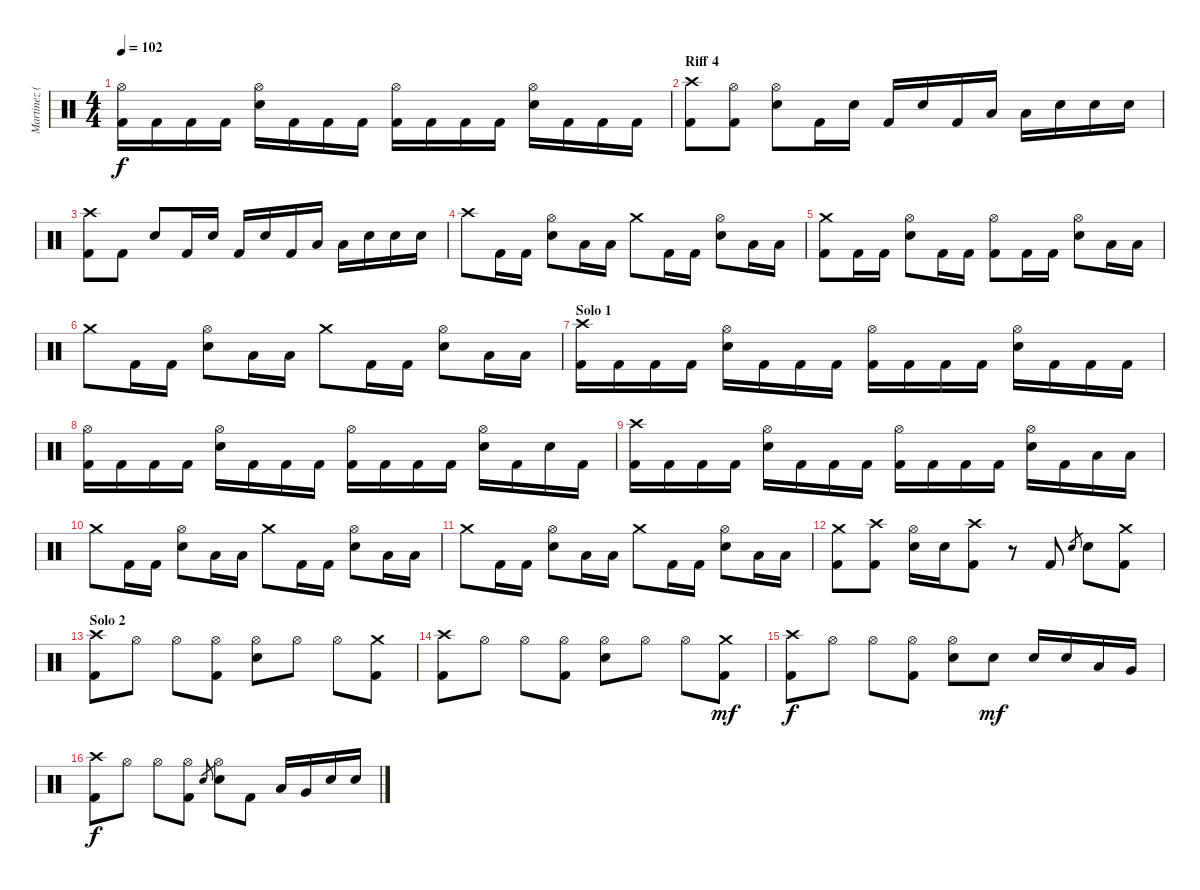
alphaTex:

\track ("Martinez (bateria)" "Martinez (") {instrument percussion}
\staff {score}
\articulation defaults
\ts (4 4)
\tempo 102
\clef neutral
\ks c
("Hi-Hat (open)" "Kick (hit) 2").16{dy f} "Kick (hit) 2".16 "Kick (hit) 2".16 "Kick (hit) 2".16 ("Hi-Hat (open)" "Electric Snare (hit)").16 "Kick (hit) 2".16 "Kick (hit) 2".16 "Kick (hit) 2".16 ("Hi-Hat (open)" "Kick (hit) 2").16 "Kick (hit) 2".16 "Kick (hit) 2".16 "Kick (hit) 2".16 ("Hi-Hat (open)" "Electric Snare (hit)").16 "Kick (hit) 2".16 "Kick (hit) 2".16 "Kick (hit) 2".16 |
\section ("" "Riff 4")
("Crash high (hit)" "Kick (hit) 2").8 ("Hi-Hat (open)" "Kick (hit) 2").8 ("Hi-Hat (open)" "Electric Snare (hit)").8 "Kick (hit) 2".16 "Electric Snare (hit)".16 "Kick (hit) 2".16 "Electric Snare (hit)".16 "Kick (hit) 2".16 "Low Tom (hit)".16 "Low Tom (hit)".16 "Electric Snare (hit)".16 "Electric Snare (hit)".16 "Electric Snare (hit)".16 |
("Crash high (hit)" "Kick (hit) 2").8 "Kick (hit) 2".8 "Electric Snare (hit)".8 "Kick (hit) 2".16 "Electric Snare (hit)".16 "Kick (hit) 2".16 "Electric Snare (hit)".16 "Kick (hit) 2".16 "Low Tom (hit)".16 "Low Tom (hit)".16 "Electric Snare (hit)".16 "Electric Snare (hit)".16 "Electric Snare (hit)".16 |
"Crash high (hit)".8 "Kick (hit) 2".16 "Kick (hit) 2".16 ("Hi-Hat (open)" "Electric Snare (hit)").8 "Low Tom (hit)".16 "Low Tom (hit)".16 "Crash medium (hit)".8 "Kick (hit) 2".16 "Kick (hit) 2".16 ("Hi-Hat (open)" "Electric Snare (hit)").8 "Low Tom (hit)".16 "Low Tom (hit)".16 |
("Crash medium (hit)" "Kick (hit) 2").8 "Kick (hit) 2".16 "Kick (hit) 2".16 ("Hi-Hat (open)" "Snare (hit) 2").8 "Kick (hit) 2".16 "Kick (hit) 2".16 ("Hi-Hat (open)" "Kick (hit) 2").8 "Kick (hit) 2".16 "Kick (hit) 2".16 ("Hi-Hat (open)" "Snare (hit) 2").8 "Low Tom (hit)".16 "Low Tom (hit)".16 |
"Crash medium (hit)".8 "Kick (hit) 2".16 "Kick (hit) 2".16 ("Hi-Hat (open)" "Electric Snare (hit)").8 "Low Tom (hit)".16 "Low Tom (hit)".16 "Crash medium (hit)".8 "Kick (hit) 2".16 "Kick (hit) 2".16 ("Hi-Hat (open)" "Electric Snare (hit)").8 "Low Tom (hit)".16 "Low Tom (hit)".16 |
\section ("" "Solo 1")
("Crash high (hit)" "Kick (hit) 2").16 "Kick (hit) 2".16 "Kick (hit) 2".16 "Kick (hit) 2".16 ("Hi-Hat (open)" "Electric Snare (hit)").16 "Kick (hit) 2".16 "Kick (hit) 2".16 "Kick (hit) 2".16 ("Hi-Hat (open)" "Kick (hit) 2").16 "Kick (hit) 2".16 "Kick (hit) 2".16 "Kick (hit) 2".16 ("Hi-Hat (open)" "Electric Snare (hit)").16 "Kick (hit) 2".16 "Kick (hit) 2".16 "Kick (hit) 2".16 |
("Hi-Hat (open)" "Kick (hit) 2").16 "Kick (hit) 2".16 "Kick (hit) 2".16 "Kick (hit) 2".16 ("Hi-Hat (open)" "Electric Snare (hit)").16 "Kick (hit) 2".16 "Kick (hit) 2".16 "Kick (hit) 2".16 ("Hi-Hat (open)" "Kick (hit) 2").16 "Kick (hit) 2".16 "Kick (hit) 2".16 "Kick (hit) 2".16 ("Hi-Hat (open)" "Electric Snare (hit)").16 "Kick (hit) 2".16 "Electric Snare (hit)".16 "Kick (hit) 2".16 |
("Crash high (hit)" "Kick (hit) 2").16 "Kick (hit) 2".16 "Kick (hit) 2".16 "Kick (hit) 2".16 ("Hi-Hat (open)" "Electric Snare (hit)").16 "Kick (hit) 2".16 "Kick (hit) 2".16 "Kick (hit) 2".16 ("Hi-Hat (open)" "Kick (hit) 2").16 "Kick (hit) 2".16 "Kick (hit) 2".16 "Kick (hit) 2".16 ("Hi-Hat (open)" "Electric Snare (hit)").16 "Kick (hit) 2".16 "Low Tom (hit)".16 "Low Tom (hit)".16 |
"Crash medium (hit)".8 "Kick (hit) 2".16 "Kick (hit) 2".16 ("Hi-Hat (open)" "Electric Snare (hit)").8 "Low Tom (hit)".16 "Low Tom (hit)".16 "Crash medium (hit)".8 "Kick (hit) 2".16 "Kick (hit) 2".16 ("Hi-Hat (open)" "Electric Snare (hit)").8 "Low Tom (hit)".16 "Low Tom (hit)".16 |
"Crash medium (hit)".8 "Kick (hit) 2".16 "Kick (hit) 2".16 ("Hi-Hat (open)" "Electric Snare (hit)").8 "Low Tom (hit)".16 "Low Tom (hit)".16 "Crash medium (hit)".8 "Kick (hit) 2".16 "Kick (hit) 2".16 ("Hi-Hat (open)" "Electric Snare (hit)").8 "Low Tom (hit)".16 "Low Tom (hit)".16 |
("Crash medium (hit)" "Kick (hit) 2").8 ("Crash high (hit)" "Kick (hit) 2").8 ("Hi-Hat (open)" "Electric Snare (hit)").16 "Electric Snare (hit)".16 ("Crash high (hit)" "Kick (hit) 2").8 r.8 "Kick (hit) 2".8 "Electric Snare (hit)".8{gr} "Electric Snare (hit)".8 ("Crash medium (hit)" "Kick (hit) 2").8 |
\section ("" "Solo 2 ")
("Crash high (hit)" "Kick (hit) 2").8 "Hi-Hat (open)".8 "Hi-Hat (open)".8 ("Hi-Hat (open)" "Kick (hit) 2").8 ("Hi-Hat (open)" "Electric Snare (hit)").8 "Hi-Hat (open)".8 "Hi-Hat (open)".8 ("Crash medium (hit)" "Kick (hit) 2").8 |
("Crash high (hit)" "Kick (hit) 2").8 "Hi-Hat (open)".8 "Hi-Hat (open)".8 ("Hi-Hat (open)" "Kick (hit) 2").8 ("Hi-Hat (open)" "Electric Snare (hit)").8 "Hi-Hat (open)".8 "Hi-Hat (open)".8 ("Crash medium (hit)" "Kick (hit) 2").8{dy mf} |
("Crash high (hit)" "Kick (hit) 2").8{dy f} "Hi-Hat (open)".8 "Hi-Hat (open)".8 ("Hi-Hat (open)" "Kick (hit) 2").8 ("Hi-Hat (open)" "Electric Snare (hit)").8 "Electric Snare (hit)".8{dy mf} "Electric Snare (hit)".16 "Electric Snare (hit)".16 "Low Tom (hit)".16 "Very Low Tom (hit)".16 |
("Crash high (hit)" "Kick (hit) 2").8{dy f} "Hi-Hat (open)".8 "Hi-Hat (open)".8 ("Hi-Hat (open)" "Kick (hit) 2").8 "Electric Snare (hit)".8{gr} ("Hi-Hat (open)" "Electric Snare (hit)").8 "Kick (hit) 2".8 "Low Tom (hit)".16 "Very Low Tom (hit)".16 "Electric Snare (hit)".16 "Electric Snare (hit)".16
